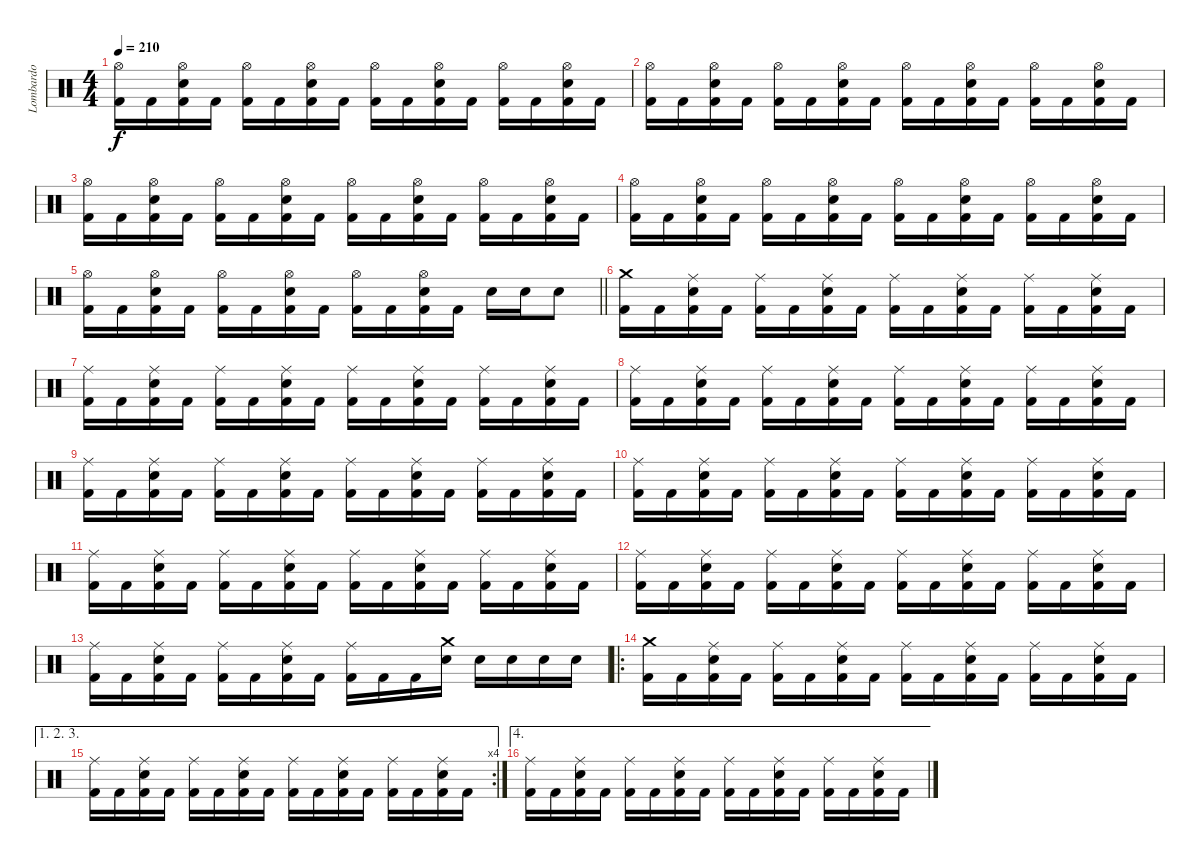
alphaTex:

\track ("Lombardo" "Lombardo") {instrument percussion}
\staff {score}
\articulation defaults
\ts (4 4)
\tempo 210
\clef neutral
\ks c
("Hi-Hat (open)" "Kick (hit) 2").16{dy f} "Kick (hit) 2".16 ("Hi-Hat (open)" "Snare (hit) 2" "Kick (hit) 2").16 "Kick (hit) 2".16 ("Hi-Hat (open)" "Kick (hit) 2").16 "Kick (hit) 2".16 ("Hi-Hat (open)" "Snare (hit) 2" "Kick (hit) 2").16 "Kick (hit) 2".16 ("Hi-Hat (open)" "Kick (hit) 2").16 "Kick (hit) 2".16 ("Hi-Hat (open)" "Snare (hit) 2" "Kick (hit) 2").16 "Kick (hit) 2".16 ("Hi-Hat (open)" "Kick (hit) 2").16 "Kick (hit) 2".16 ("Hi-Hat (open)" "Snare (hit) 2" "Kick (hit) 2").16 "Kick (hit) 2".16 |
("Hi-Hat (open)" "Kick (hit) 2").16 "Kick (hit) 2".16 ("Hi-Hat (open)" "Snare (hit) 2" "Kick (hit) 2").16 "Kick (hit) 2".16 ("Hi-Hat (open)" "Kick (hit) 2").16 "Kick (hit) 2".16 ("Hi-Hat (open)" "Snare (hit) 2" "Kick (hit) 2").16 "Kick (hit) 2".16 ("Hi-Hat (open)" "Kick (hit) 2").16 "Kick (hit) 2".16 ("Hi-Hat (open)" "Snare (hit) 2" "Kick (hit) 2").16 "Kick (hit) 2".16 ("Hi-Hat (open)" "Kick (hit) 2").16 "Kick (hit) 2".16 ("Hi-Hat (open)" "Snare (hit) 2" "Kick (hit) 2").16 "Kick (hit) 2".16 |
("Hi-Hat (open)" "Kick (hit) 2").16 "Kick (hit) 2".16 ("Hi-Hat (open)" "Snare (hit) 2" "Kick (hit) 2").16 "Kick (hit) 2".16 ("Hi-Hat (open)" "Kick (hit) 2").16 "Kick (hit) 2".16 ("Hi-Hat (open)" "Snare (hit) 2" "Kick (hit) 2").16 "Kick (hit) 2".16 ("Hi-Hat (open)" "Kick (hit) 2").16 "Kick (hit) 2".16 ("Hi-Hat (open)" "Snare (hit) 2" "Kick (hit) 2").16 "Kick (hit) 2".16 ("Hi-Hat (open)" "Kick (hit) 2").16 "Kick (hit) 2".16 ("Hi-Hat (open)" "Snare (hit) 2" "Kick (hit) 2").16 "Kick (hit) 2".16 |
("Hi-Hat (open)" "Kick (hit) 2").16 "Kick (hit) 2".16 ("Hi-Hat (open)" "Snare (hit) 2" "Kick (hit) 2").16 "Kick (hit) 2".16 ("Hi-Hat (open)" "Kick (hit) 2").16 "Kick (hit) 2".16 ("Hi-Hat (open)" "Snare (hit) 2" "Kick (hit) 2").16 "Kick (hit) 2".16 ("Hi-Hat (open)" "Kick (hit) 2").16 "Kick (hit) 2".16 ("Hi-Hat (open)" "Snare (hit) 2" "Kick (hit) 2").16 "Kick (hit) 2".16 ("Hi-Hat (open)" "Kick (hit) 2").16 "Kick (hit) 2".16 ("Hi-Hat (open)" "Snare (hit) 2" "Kick (hit) 2").16 "Kick (hit) 2".16 |
\barLineRight lightlight
("Hi-Hat (open)" "Kick (hit) 2").16 "Kick (hit) 2".16 ("Hi-Hat (open)" "Snare (hit) 2" "Kick (hit) 2").16 "Kick (hit) 2".16 ("Hi-Hat (open)" "Kick (hit) 2").16 "Kick (hit) 2".16 ("Hi-Hat (open)" "Snare (hit) 2" "Kick (hit) 2").16 "Kick (hit) 2".16 ("Hi-Hat (open)" "Kick (hit) 2").16 "Kick (hit) 2".16 ("Hi-Hat (open)" "Snare (hit) 2" "Kick (hit) 2").16 "Kick (hit) 2".16 "Snare (hit) 2".16 "Snare (hit) 2".16 "Snare (hit) 2".8 |
("Crash medium (hit)" "Kick (hit) 2").16 "Kick (hit) 2".16 ("Ride (middle)" "Snare (hit) 2" "Kick (hit) 2").16 "Kick (hit) 2".16 ("Ride (middle)" "Kick (hit) 2").16 "Kick (hit) 2".16 ("Ride (middle)" "Snare (hit) 2" "Kick (hit) 2").16 "Kick (hit) 2".16 ("Ride (middle)" "Kick (hit) 2").16 "Kick (hit) 2".16 ("Ride (middle)" "Snare (hit) 2" "Kick (hit) 2").16 "Kick (hit) 2".16 ("Ride (middle)" "Kick (hit) 2").16 "Kick (hit) 2".16 ("Ride (middle)" "Snare (hit) 2" "Kick (hit) 2").16 "Kick (hit) 2".16 |
("Ride (middle)" "Kick (hit) 2").16 "Kick (hit) 2".16 ("Ride (middle)" "Snare (hit) 2" "Kick (hit) 2").16 "Kick (hit) 2".16 ("Ride (middle)" "Kick (hit) 2").16 "Kick (hit) 2".16 ("Ride (middle)" "Snare (hit) 2" "Kick (hit) 2").16 "Kick (hit) 2".16 ("Ride (middle)" "Kick (hit) 2").16 "Kick (hit) 2".16 ("Ride (middle)" "Snare (hit) 2" "Kick (hit) 2").16 "Kick (hit) 2".16 ("Ride (middle)" "Kick (hit) 2").16 "Kick (hit) 2".16 ("Ride (middle)" "Snare (hit) 2" "Kick (hit) 2").16 "Kick (hit) 2".16 |
("Ride (middle)" "Kick (hit) 2").16 "Kick (hit) 2".16 ("Ride (middle)" "Snare (hit) 2" "Kick (hit) 2").16 "Kick (hit) 2".16 ("Ride (middle)" "Kick (hit) 2").16 "Kick (hit) 2".16 ("Ride (middle)" "Snare (hit) 2" "Kick (hit) 2").16 "Kick (hit) 2".16 ("Ride (middle)" "Kick (hit) 2").16 "Kick (hit) 2".16 ("Ride (middle)" "Snare (hit) 2" "Kick (hit) 2").16 "Kick (hit) 2".16 ("Ride (middle)" "Kick (hit) 2").16 "Kick (hit) 2".16 ("Ride (middle)" "Snare (hit) 2" "Kick (hit) 2").16 "Kick (hit) 2".16 |
("Ride (middle)" "Kick (hit) 2").16 "Kick (hit) 2".16 ("Ride (middle)" "Snare (hit) 2" "Kick (hit) 2").16 "Kick (hit) 2".16 ("Ride (middle)" "Kick (hit) 2").16 "Kick (hit) 2".16 ("Ride (middle)" "Snare (hit) 2" "Kick (hit) 2").16 "Kick (hit) 2".16 ("Ride (middle)" "Kick (hit) 2").16 "Kick (hit) 2".16 ("Ride (middle)" "Snare (hit) 2" "Kick (hit) 2").16 "Kick (hit) 2".16 ("Ride (middle)" "Kick (hit) 2").16 "Kick (hit) 2".16 ("Ride (middle)" "Snare (hit) 2" "Kick (hit) 2").16 "Kick (hit) 2".16 |
("Ride (middle)" "Kick (hit) 2").16 "Kick (hit) 2".16 ("Ride (middle)" "Snare (hit) 2" "Kick (hit) 2").16 "Kick (hit) 2".16 ("Ride (middle)" "Kick (hit) 2").16 "Kick (hit) 2".16 ("Ride (middle)" "Snare (hit) 2" "Kick (hit) 2").16 "Kick (hit) 2".16 ("Ride (middle)" "Kick (hit) 2").16 "Kick (hit) 2".16 ("Ride (middle)" "Snare (hit) 2" "Kick (hit) 2").16 "Kick (hit) 2".16 ("Ride (middle)" "Kick (hit) 2").16 "Kick (hit) 2".16 ("Ride (middle)" "Snare (hit) 2" "Kick (hit) 2").16 "Kick (hit) 2".16 |
("Ride (middle)" "Kick (hit) 2").16 "Kick (hit) 2".16 ("Ride (middle)" "Snare (hit) 2" "Kick (hit) 2").16 "Kick (hit) 2".16 ("Ride (middle)" "Kick (hit) 2").16 "Kick (hit) 2".16 ("Ride (middle)" "Snare (hit) 2" "Kick (hit) 2").16 "Kick (hit) 2".16 ("Ride (middle)" "Kick (hit) 2").16 "Kick (hit) 2".16 ("Ride (middle)" "Snare (hit) 2" "Kick (hit) 2").16 "Kick (hit) 2".16 ("Ride (middle)" "Kick (hit) 2").16 "Kick (hit) 2".16 ("Ride (middle)" "Snare (hit) 2" "Kick (hit) 2").16 "Kick (hit) 2".16 |
("Ride (middle)" "Kick (hit) 2").16 "Kick (hit) 2".16 ("Ride (middle)" "Snare (hit) 2" "Kick (hit) 2").16 "Kick (hit) 2".16 ("Ride (middle)" "Kick (hit) 2").16 "Kick (hit) 2".16 ("Ride (middle)" "Snare (hit) 2" "Kick (hit) 2").16 "Kick (hit) 2".16 ("Ride (middle)" "Kick (hit) 2").16 "Kick (hit) 2".16 ("Ride (middle)" "Snare (hit) 2" "Kick (hit) 2").16 "Kick (hit) 2".16 ("Ride (middle)" "Kick (hit) 2").16 "Kick (hit) 2".16 ("Ride (middle)" "Snare (hit) 2" "Kick (hit) 2").16 "Kick (hit) 2".16 |
("Ride (middle)" "Kick (hit) 2").16 "Kick (hit) 2".16 ("Ride (middle)" "Snare (hit) 2" "Kick (hit) 2").16 "Kick (hit) 2".16 ("Ride (middle)" "Kick (hit) 2").16 "Kick (hit) 2".16 ("Ride (middle)" "Snare (hit) 2" "Kick (hit) 2").16 "Kick (hit) 2".16 ("Ride (middle)" "Kick (hit) 2").16 "Kick (hit) 2".16 "Kick (hit) 2".16 ("Crash medium (hit)" "Snare (hit) 2").16 "Snare (hit) 2".16 "Snare (hit) 2".16 "Snare (hit) 2".16 "Snare (hit) 2".16 |
\ro
("Crash medium (hit)" "Kick (hit) 2").16 "Kick (hit) 2".16 ("Ride (middle)" "Snare (hit) 2" "Kick (hit) 2").16 "Kick (hit) 2".16 ("Ride (middle)" "Kick (hit) 2").16 "Kick (hit) 2".16 ("Ride (middle)" "Snare (hit) 2" "Kick (hit) 2").16 "Kick (hit) 2".16 ("Ride (middle)" "Kick (hit) 2").16 "Kick (hit) 2".16 ("Ride (middle)" "Snare (hit) 2" "Kick (hit) 2").16 "Kick (hit) 2".16 ("Ride (middle)" "Kick (hit) 2").16 "Kick (hit) 2".16 ("Ride (middle)" "Snare (hit) 2" "Kick (hit) 2").16 "Kick (hit) 2".16 |
\ae (1 2 3)
\rc 4
("Ride (middle)" "Kick (hit) 2").16 "Kick (hit) 2".16 ("Ride (middle)" "Snare (hit) 2" "Kick (hit) 2").16 "Kick (hit) 2".16 ("Ride (middle)" "Kick (hit) 2").16 "Kick (hit) 2".16 ("Ride (middle)" "Snare (hit) 2" "Kick (hit) 2").16 "Kick (hit) 2".16 ("Ride (middle)" "Kick (hit) 2").16 "Kick (hit) 2".16 ("Ride (middle)" "Snare (hit) 2" "Kick (hit) 2").16 "Kick (hit) 2".16 ("Ride (middle)" "Kick (hit) 2").16 "Kick (hit) 2".16 ("Ride (middle)" "Snare (hit) 2" "Kick (hit) 2").16 "Kick (hit) 2".16 |
\ae 4
("Ride (middle)" "Kick (hit) 2").16 "Kick (hit) 2".16 ("Ride (middle)" "Snare (hit) 2" "Kick (hit) 2").16 "Kick (hit) 2".16 ("Ride (middle)" "Kick (hit) 2").16 "Kick (hit) 2".16 ("Ride (middle)" "Snare (hit) 2" "Kick (hit) 2").16 "Kick (hit) 2".16 ("Ride (middle)" "Kick (hit) 2").16 "Kick (hit) 2".16 ("Ride (middle)" "Snare (hit) 2" "Kick (hit) 2").16 "Kick (hit) 2".16 ("Ride (middle)" "Kick (hit) 2").16 "Kick (hit) 2".16 ("Ride (middle)" "Snare (hit) 2" "Kick (hit) 2").16 "Kick (hit) 2".16
